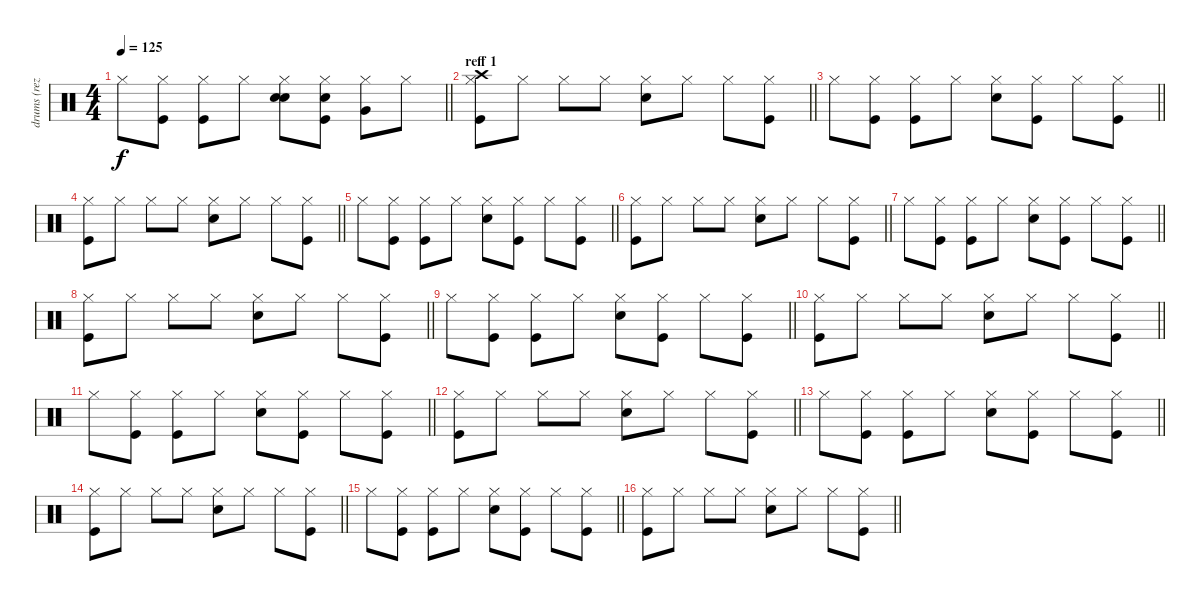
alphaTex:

\track ("drums (reza)" "drums (rez") {instrument percussion}
\staff {score}
\articulation defaults
\ts (4 4)
\tempo 125
\clef neutral
\barLineRight lightlight
\ks c "Hi-Hat (closed)".8{dy f}
("Hi-Hat (closed)" "Kick (hit)").8 ("Hi-Hat (closed)" "Kick (hit)").8 "Hi-Hat (closed)".8 ("Hi-Hat (closed)" "Snare (hit) 2" "Snare (hit) 2").8 ("Hi-Hat (closed)" "Kick (hit)" "Snare (hit) 2").8 ("Hi-Hat (closed)" "Very Low Tom (hit)").8 "Hi-Hat (closed)".8 |
\section ("" "reff 1")
\barLineRight lightlight
("Hi-Hat (closed)" "Kick (hit)" "Crash high (hit)").8 "Hi-Hat (closed)".8 "Hi-Hat (closed)".8 "Hi-Hat (closed)".8 ("Hi-Hat (closed)" "Snare (hit) 2").8 "Hi-Hat (closed)".8 "Hi-Hat (closed)".8 ("Hi-Hat (closed)" "Kick (hit)").8 |
\barLineRight lightlight "Hi-Hat (closed)".8
("Hi-Hat (closed)" "Kick (hit)").8 ("Hi-Hat (closed)" "Kick (hit)").8 "Hi-Hat (closed)".8 ("Hi-Hat (closed)" "Snare (hit) 2").8 ("Hi-Hat (closed)" "Kick (hit)").8 "Hi-Hat (closed)".8 ("Hi-Hat (closed)" "Kick (hit)").8 |
\barLineRight lightlight
("Hi-Hat (closed)" "Kick (hit)").8 "Hi-Hat (closed)".8 "Hi-Hat (closed)".8 "Hi-Hat (closed)".8 ("Hi-Hat (closed)" "Snare (hit) 2").8 "Hi-Hat (closed)".8 "Hi-Hat (closed)".8 ("Hi-Hat (closed)" "Kick (hit)").8 |
\barLineRight lightlight "Hi-Hat (closed)".8
("Hi-Hat (closed)" "Kick (hit)").8 ("Hi-Hat (closed)" "Kick (hit)").8 "Hi-Hat (closed)".8 ("Hi-Hat (closed)" "Snare (hit) 2").8 ("Hi-Hat (closed)" "Kick (hit)").8 "Hi-Hat (closed)".8 ("Hi-Hat (closed)" "Kick (hit)").8 |
\barLineRight lightlight
("Hi-Hat (closed)" "Kick (hit)").8 "Hi-Hat (closed)".8 "Hi-Hat (closed)".8 "Hi-Hat (closed)".8 ("Hi-Hat (closed)" "Snare (hit) 2").8 "Hi-Hat (closed)".8 "Hi-Hat (closed)".8 ("Hi-Hat (closed)" "Kick (hit)").8 |
\barLineRight lightlight "Hi-Hat (closed)".8
("Hi-Hat (closed)" "Kick (hit)").8 ("Hi-Hat (closed)" "Kick (hit)").8 "Hi-Hat (closed)".8 ("Hi-Hat (closed)" "Snare (hit) 2").8 ("Hi-Hat (closed)" "Kick (hit)").8 "Hi-Hat (closed)".8 ("Hi-Hat (closed)" "Kick (hit)").8 |
\barLineRight lightlight
("Hi-Hat (closed)" "Kick (hit)").8 "Hi-Hat (closed)".8 "Hi-Hat (closed)".8 "Hi-Hat (closed)".8 ("Hi-Hat (closed)" "Snare (hit) 2").8 "Hi-Hat (closed)".8 "Hi-Hat (closed)".8 ("Hi-Hat (closed)" "Kick (hit)").8 |
\barLineRight lightlight "Hi-Hat (closed)".8
("Hi-Hat (closed)" "Kick (hit)").8 ("Hi-Hat (closed)" "Kick (hit)").8 "Hi-Hat (closed)".8 ("Hi-Hat (closed)" "Snare (hit) 2").8 ("Hi-Hat (closed)" "Kick (hit)").8 "Hi-Hat (closed)".8 ("Hi-Hat (closed)" "Kick (hit)").8 |
\barLineRight lightlight
("Hi-Hat (closed)" "Kick (hit)").8 "Hi-Hat (closed)".8 "Hi-Hat (closed)".8 "Hi-Hat (closed)".8 ("Hi-Hat (closed)" "Snare (hit) 2").8 "Hi-Hat (closed)".8 "Hi-Hat (closed)".8 ("Hi-Hat (closed)" "Kick (hit)").8 |
\barLineRight lightlight "Hi-Hat (closed)".8
("Hi-Hat (closed)" "Kick (hit)").8 ("Hi-Hat (closed)" "Kick (hit)").8 "Hi-Hat (closed)".8 ("Hi-Hat (closed)" "Snare (hit) 2").8 ("Hi-Hat (closed)" "Kick (hit)").8 "Hi-Hat (closed)".8 ("Hi-Hat (closed)" "Kick (hit)").8 |
\barLineRight lightlight
("Hi-Hat (closed)" "Kick (hit)").8 "Hi-Hat (closed)".8 "Hi-Hat (closed)".8 "Hi-Hat (closed)".8 ("Hi-Hat (closed)" "Snare (hit) 2").8 "Hi-Hat (closed)".8 "Hi-Hat (closed)".8 ("Hi-Hat (closed)" "Kick (hit)").8 |
\barLineRight lightlight "Hi-Hat (closed)".8
("Hi-Hat (closed)" "Kick (hit)").8 ("Hi-Hat (closed)" "Kick (hit)").8 "Hi-Hat (closed)".8 ("Hi-Hat (closed)" "Snare (hit) 2").8 ("Hi-Hat (closed)" "Kick (hit)").8 "Hi-Hat (closed)".8 ("Hi-Hat (closed)" "Kick (hit)").8 |
\barLineRight lightlight
("Hi-Hat (closed)" "Kick (hit)").8 "Hi-Hat (closed)".8 "Hi-Hat (closed)".8 "Hi-Hat (closed)".8 ("Hi-Hat (closed)" "Snare (hit) 2").8 "Hi-Hat (closed)".8 "Hi-Hat (closed)".8 ("Hi-Hat (closed)" "Kick (hit)").8 |
\barLineRight lightlight "Hi-Hat (closed)".8
("Hi-Hat (closed)" "Kick (hit)").8 ("Hi-Hat (closed)" "Kick (hit)").8 "Hi-Hat (closed)".8 ("Hi-Hat (closed)" "Snare (hit) 2").8 ("Hi-Hat (closed)" "Kick (hit)").8 "Hi-Hat (closed)".8 ("Hi-Hat (closed)" "Kick (hit)").8 |
\barLineRight lightlight
("Hi-Hat (closed)" "Kick (hit)").8 "Hi-Hat (closed)".8 "Hi-Hat (closed)".8 "Hi-Hat (closed)".8 ("Hi-Hat (closed)" "Snare (hit) 2").8 "Hi-Hat (closed)".8 "Hi-Hat (closed)".8 ("Hi-Hat (closed)" "Kick (hit)").8
